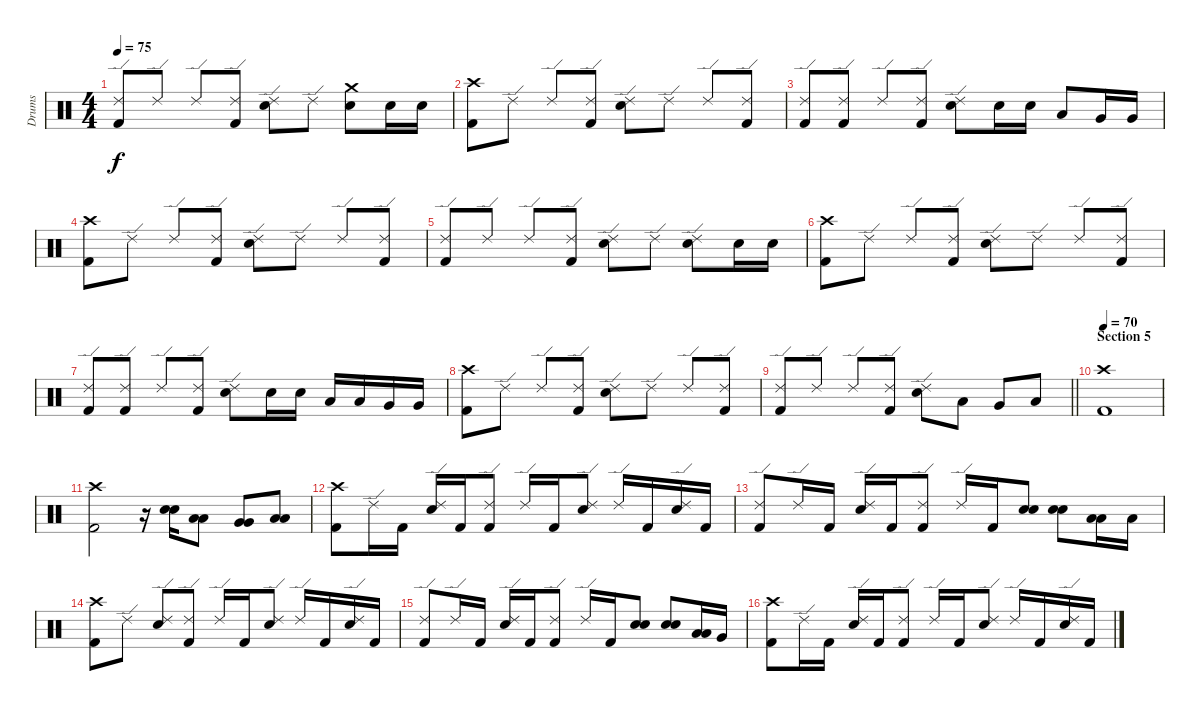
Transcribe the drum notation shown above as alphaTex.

\track ("Drums" "Drums") {instrument percussion}
\staff {score}
\articulation defaults
\ts (4 4)
\tempo 75
\clef neutral
\ks c
("Ride (edge) 2" "Kick (hit) 2").8{dy f} "Ride (edge) 2".8 "Ride (edge) 2".8 ("Ride (edge) 2" "Kick (hit) 2").8 ("Ride (edge) 2" "Electric Snare (hit)").8 "Ride (edge) 2".8 ("Crash medium (hit)" "Electric Snare (hit)").8 "Electric Snare (hit)".16 "Electric Snare (hit)".16 |
("Crash high (hit)" "Kick (hit) 2").8 "Ride (edge) 2".8 "Ride (edge) 2".8 ("Ride (edge) 2" "Kick (hit) 2").8 ("Ride (edge) 2" "Electric Snare (hit)").8 "Ride (edge) 2".8 "Ride (edge) 2".8 ("Ride (edge) 2" "Kick (hit) 2").8 |
("Ride (edge) 2" "Kick (hit) 2").8 ("Ride (edge) 2" "Kick (hit) 2").8 "Ride (edge) 2".8 ("Ride (edge) 2" "Kick (hit) 2").8 ("Ride (edge) 2" "Electric Snare (hit)").8 "Electric Snare (hit)".16 "Electric Snare (hit)".16 "Low Tom (hit)".8 "Very Low Tom (hit)".16 "Very Low Tom (hit)".16 |
("Crash high (hit)" "Kick (hit) 2").8 "Ride (edge) 2".8 "Ride (edge) 2".8 ("Ride (edge) 2" "Kick (hit) 2").8 ("Ride (edge) 2" "Electric Snare (hit)").8 "Ride (edge) 2".8 "Ride (edge) 2".8 ("Ride (edge) 2" "Kick (hit) 2").8 |
("Ride (edge) 2" "Kick (hit) 2").8 "Ride (edge) 2".8 "Ride (edge) 2".8 ("Ride (edge) 2" "Kick (hit) 2").8 ("Ride (edge) 2" "Electric Snare (hit)").8 "Ride (edge) 2".8 ("Ride (edge) 2" "Electric Snare (hit)").8 "Electric Snare (hit)".16 "Electric Snare (hit)".16 |
("Crash high (hit)" "Kick (hit) 2").8 "Ride (edge) 2".8 "Ride (edge) 2".8 ("Ride (edge) 2" "Kick (hit) 2").8 ("Ride (edge) 2" "Electric Snare (hit)").8 "Ride (edge) 2".8 "Ride (edge) 2".8 ("Ride (edge) 2" "Kick (hit) 2").8 |
("Ride (edge) 2" "Kick (hit) 2").8 ("Ride (edge) 2" "Kick (hit) 2").8 "Ride (edge) 2".8 ("Ride (edge) 2" "Kick (hit) 2").8 ("Ride (edge) 2" "Electric Snare (hit)").8 "Electric Snare (hit)".16 "Electric Snare (hit)".16 "Low Tom (hit)".16 "Low Tom (hit)".16 "Very Low Tom (hit)".16 "Very Low Tom (hit)".16 |
("Crash high (hit)" "Kick (hit) 2").8 "Ride (edge) 2".8 "Ride (edge) 2".8 ("Ride (edge) 2" "Kick (hit) 2").8 ("Ride (edge) 2" "Electric Snare (hit)").8 "Ride (edge) 2".8 "Ride (edge) 2".8 ("Ride (edge) 2" "Kick (hit) 2").8 |
\barLineRight lightlight
("Ride (edge) 2" "Kick (hit) 2").8 "Ride (edge) 2".8 "Ride (edge) 2".8 ("Ride (edge) 2" "Kick (hit) 2").8 ("Ride (edge) 2" "Electric Snare (hit)").8 "Low Tom (hit)".8 "Very Low Tom (hit)".8 "Low Floor Tom (hit)".8 |
\section ("" "Section 5")
\tempo 70
("Crash high (hit)" "Kick (hit) 2").1 |
("Crash high (hit)" "Kick (hit) 2").2 r.16 ("Electric Snare (hit)" "Electric Snare (hit)").16{bu 60} ("Low Tom (hit)" "Low Tom (hit)").8{bu 60} ("Very Low Tom (hit)" "Very Low Tom (hit)").8{bu 60} ("Low Floor Tom (hit)" "Low Floor Tom (hit)").8{bu 60} |
("Crash high (hit)" "Kick (hit) 2").8 "Ride (edge) 2".16 "Kick (hit) 2".16 ("Ride (edge) 2" "Electric Snare (hit)").16 "Kick (hit) 2".16 ("Ride (edge) 2" "Kick (hit) 2").8 "Ride (edge) 2".16 "Kick (hit) 2".16 ("Ride (edge) 2" "Electric Snare (hit)").8 "Ride (edge) 2".16 "Kick (hit) 2".16 ("Ride (edge) 2" "Electric Snare (hit)").16 "Kick (hit) 2".16 |
("Ride (edge) 2" "Kick (hit) 2").8 "Ride (edge) 2".16 "Kick (hit) 2".16 ("Ride (edge) 2" "Electric Snare (hit)").16 "Kick (hit) 2".16 ("Ride (edge) 2" "Kick (hit) 2").8 "Ride (edge) 2".16 "Kick (hit) 2".16 ("Electric Snare (hit)" "Electric Snare (hit)").8{bu 60} ("Electric Snare (hit)" "Electric Snare (hit)").8{bu 60} ("Low Tom (hit)" "Low Tom (hit)").16{bu 60} "Low Tom (hit)".16 |
("Crash high (hit)" "Kick (hit) 2").8 "Ride (edge) 2".8 ("Ride (edge) 2" "Electric Snare (hit)").8 ("Ride (edge) 2" "Kick (hit) 2").8 "Ride (edge) 2".16 "Kick (hit) 2".16 ("Ride (edge) 2" "Electric Snare (hit)").8 "Ride (edge) 2".16 "Kick (hit) 2".16 ("Ride (edge) 2" "Electric Snare (hit)").16 "Kick (hit) 2".16 |
("Ride (edge) 2" "Kick (hit) 2").8 "Ride (edge) 2".16 "Kick (hit) 2".16 ("Ride (edge) 2" "Electric Snare (hit)").16 "Kick (hit) 2".16 ("Ride (edge) 2" "Kick (hit) 2").8 "Ride (edge) 2".16 "Kick (hit) 2".16 ("Electric Snare (hit)" "Electric Snare (hit)").8{bu 60} ("Electric Snare (hit)" "Electric Snare (hit)").8{bu 60} ("Low Tom (hit)" "Low Tom (hit)").16{bu 60} "Very Low Tom (hit)".16 |
("Crash high (hit)" "Kick (hit) 2").8 "Ride (edge) 2".16 "Kick (hit) 2".16 ("Ride (edge) 2" "Electric Snare (hit)").16 "Kick (hit) 2".16 ("Ride (edge) 2" "Kick (hit) 2").8 "Ride (edge) 2".16 "Kick (hit) 2".16 ("Ride (edge) 2" "Electric Snare (hit)").8 "Ride (edge) 2".16 "Kick (hit) 2".16 ("Ride (edge) 2" "Electric Snare (hit)").16 "Kick (hit) 2".16
